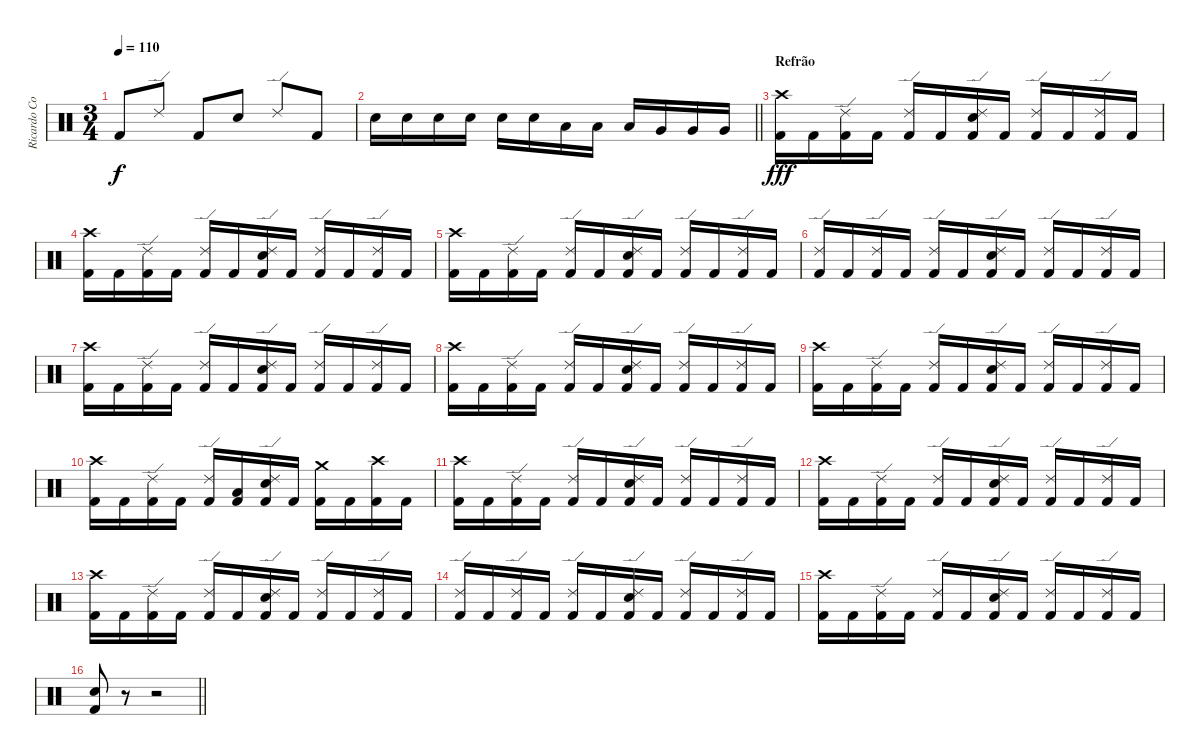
\track ("Ricardo Confessori" "Ricardo Co") {instrument percussion}
\staff {score}
\articulation defaults
\ts (3 4)
\tempo 110
\clef neutral
\ks c "Kick (hit) 2".8{dy f} "Ride (edge) 2".8 "Kick (hit) 2".8 "Electric Snare (hit)".8 "Ride (edge) 2".8 "Kick (hit) 2".8
|
\barLineRight lightlight "Electric Snare (hit)".16 "Electric Snare (hit)".16 "Electric Snare (hit)".16 "Electric Snare (hit)".16 "Electric Snare (hit)".16 "Electric Snare (hit)".16 "Low Tom (hit)".16 "Low Tom (hit)".16 "Low Tom (hit)".16 "Very Low Tom (hit)".16 "Very Low Tom (hit)".16 "Very Low Tom (hit)".16
|
\section ("" "Refrão")
("Crash high (hit)" "Kick (hit) 2").16{dy fff} "Kick (hit) 2".16 ("Ride (edge) 2" "Kick (hit) 2").16 "Kick (hit) 2".16 ("Ride (edge) 2" "Kick (hit) 2").16 "Kick (hit) 2".16 ("Ride (edge) 2" "Electric Snare (hit)" "Kick (hit) 2").16 "Kick (hit) 2".16 ("Ride (edge) 2" "Kick (hit) 2").16 "Kick (hit) 2".16 ("Ride (edge) 2" "Kick (hit) 2").16 "Kick (hit) 2".16 |
("Crash high (hit)" "Kick (hit) 2").16 "Kick (hit) 2".16 ("Ride (edge) 2" "Kick (hit) 2").16 "Kick (hit) 2".16 ("Ride (edge) 2" "Kick (hit) 2").16 "Kick (hit) 2".16 ("Ride (edge) 2" "Electric Snare (hit)" "Kick (hit) 2").16 "Kick (hit) 2".16 ("Ride (edge) 2" "Kick (hit) 2").16 "Kick (hit) 2".16 ("Ride (edge) 2" "Kick (hit) 2").16 "Kick (hit) 2".16 |
("Crash high (hit)" "Kick (hit) 2").16 "Kick (hit) 2".16 ("Ride (edge) 2" "Kick (hit) 2").16 "Kick (hit) 2".16 ("Ride (edge) 2" "Kick (hit) 2").16 "Kick (hit) 2".16 ("Ride (edge) 2" "Electric Snare (hit)" "Kick (hit) 2").16 "Kick (hit) 2".16 ("Ride (edge) 2" "Kick (hit) 2").16 "Kick (hit) 2".16 ("Ride (edge) 2" "Kick (hit) 2").16 "Kick (hit) 2".16 |
("Ride (edge) 2" "Kick (hit) 2").16 "Kick (hit) 2".16 ("Ride (edge) 2" "Kick (hit) 2").16 "Kick (hit) 2".16 ("Ride (edge) 2" "Kick (hit) 2").16 "Kick (hit) 2".16 ("Ride (edge) 2" "Electric Snare (hit)" "Kick (hit) 2").16 "Kick (hit) 2".16 ("Ride (edge) 2" "Kick (hit) 2").16 "Kick (hit) 2".16 ("Ride (edge) 2" "Kick (hit) 2").16 "Kick (hit) 2".16 |
("Crash high (hit)" "Kick (hit) 2").16 "Kick (hit) 2".16 ("Ride (edge) 2" "Kick (hit) 2").16 "Kick (hit) 2".16 ("Ride (edge) 2" "Kick (hit) 2").16 "Kick (hit) 2".16 ("Ride (edge) 2" "Electric Snare (hit)" "Kick (hit) 2").16 "Kick (hit) 2".16 ("Ride (edge) 2" "Kick (hit) 2").16 "Kick (hit) 2".16 ("Ride (edge) 2" "Kick (hit) 2").16 "Kick (hit) 2".16 |
("Crash high (hit)" "Kick (hit) 2").16 "Kick (hit) 2".16 ("Ride (edge) 2" "Kick (hit) 2").16 "Kick (hit) 2".16 ("Ride (edge) 2" "Kick (hit) 2").16 "Kick (hit) 2".16 ("Ride (edge) 2" "Electric Snare (hit)" "Kick (hit) 2").16 "Kick (hit) 2".16 ("Ride (edge) 2" "Kick (hit) 2").16 "Kick (hit) 2".16 ("Ride (edge) 2" "Kick (hit) 2").16 "Kick (hit) 2".16 |
("Crash high (hit)" "Kick (hit) 2").16 "Kick (hit) 2".16 ("Ride (edge) 2" "Kick (hit) 2").16 "Kick (hit) 2".16 ("Ride (edge) 2" "Kick (hit) 2").16 "Kick (hit) 2".16 ("Ride (edge) 2" "Electric Snare (hit)" "Kick (hit) 2").16 "Kick (hit) 2".16 ("Ride (edge) 2" "Kick (hit) 2").16 "Kick (hit) 2".16 ("Ride (edge) 2" "Kick (hit) 2").16 "Kick (hit) 2".16 |
("Crash high (hit)" "Kick (hit) 2").16 "Kick (hit) 2".16 ("Ride (edge) 2" "Kick (hit) 2").16 "Kick (hit) 2".16 ("Ride (edge) 2" "Kick (hit) 2").16 ("Low Tom (hit)" "Kick (hit) 2").16 ("Ride (edge) 2" "Electric Snare (hit)" "Kick (hit) 2").16 "Kick (hit) 2".16 ("Crash medium (hit)" "Kick (hit) 2").16 "Kick (hit) 2".16 ("Crash high (hit)" "Kick (hit) 2").16 "Kick (hit) 2".16 |
("Crash high (hit)" "Kick (hit) 2").16 "Kick (hit) 2".16 ("Ride (edge) 2" "Kick (hit) 2").16 "Kick (hit) 2".16 ("Ride (edge) 2" "Kick (hit) 2").16 "Kick (hit) 2".16 ("Ride (edge) 2" "Electric Snare (hit)" "Kick (hit) 2").16 "Kick (hit) 2".16 ("Ride (edge) 2" "Kick (hit) 2").16 "Kick (hit) 2".16 ("Ride (edge) 2" "Kick (hit) 2").16 "Kick (hit) 2".16 |
("Crash high (hit)" "Kick (hit) 2").16 "Kick (hit) 2".16 ("Ride (edge) 2" "Kick (hit) 2").16 "Kick (hit) 2".16 ("Ride (edge) 2" "Kick (hit) 2").16 "Kick (hit) 2".16 ("Ride (edge) 2" "Electric Snare (hit)" "Kick (hit) 2").16 "Kick (hit) 2".16 ("Ride (edge) 2" "Kick (hit) 2").16 "Kick (hit) 2".16 ("Ride (edge) 2" "Kick (hit) 2").16 "Kick (hit) 2".16 |
("Crash high (hit)" "Kick (hit) 2").16 "Kick (hit) 2".16 ("Ride (edge) 2" "Kick (hit) 2").16 "Kick (hit) 2".16 ("Ride (edge) 2" "Kick (hit) 2").16 "Kick (hit) 2".16 ("Ride (edge) 2" "Electric Snare (hit)" "Kick (hit) 2").16 "Kick (hit) 2".16 ("Ride (edge) 2" "Kick (hit) 2").16 "Kick (hit) 2".16 ("Ride (edge) 2" "Kick (hit) 2").16 "Kick (hit) 2".16 |
("Ride (edge) 2" "Kick (hit) 2").16 "Kick (hit) 2".16 ("Ride (edge) 2" "Kick (hit) 2").16 "Kick (hit) 2".16 ("Ride (edge) 2" "Kick (hit) 2").16 "Kick (hit) 2".16 ("Ride (edge) 2" "Electric Snare (hit)" "Kick (hit) 2").16 "Kick (hit) 2".16 ("Ride (edge) 2" "Kick (hit) 2").16 "Kick (hit) 2".16 ("Ride (edge) 2" "Kick (hit) 2").16 "Kick (hit) 2".16 |
("Crash high (hit)" "Kick (hit) 2").16 "Kick (hit) 2".16 ("Ride (edge) 2" "Kick (hit) 2").16 "Kick (hit) 2".16 ("Ride (edge) 2" "Kick (hit) 2").16 "Kick (hit) 2".16 ("Ride (edge) 2" "Electric Snare (hit)" "Kick (hit) 2").16 "Kick (hit) 2".16 ("Ride (edge) 2" "Kick (hit) 2").16 "Kick (hit) 2".16 ("Ride (edge) 2" "Kick (hit) 2").16 "Kick (hit) 2".16 |
\barLineRight lightlight
("Electric Snare (hit)" "Kick (hit) 2").8 r.8 r.2
